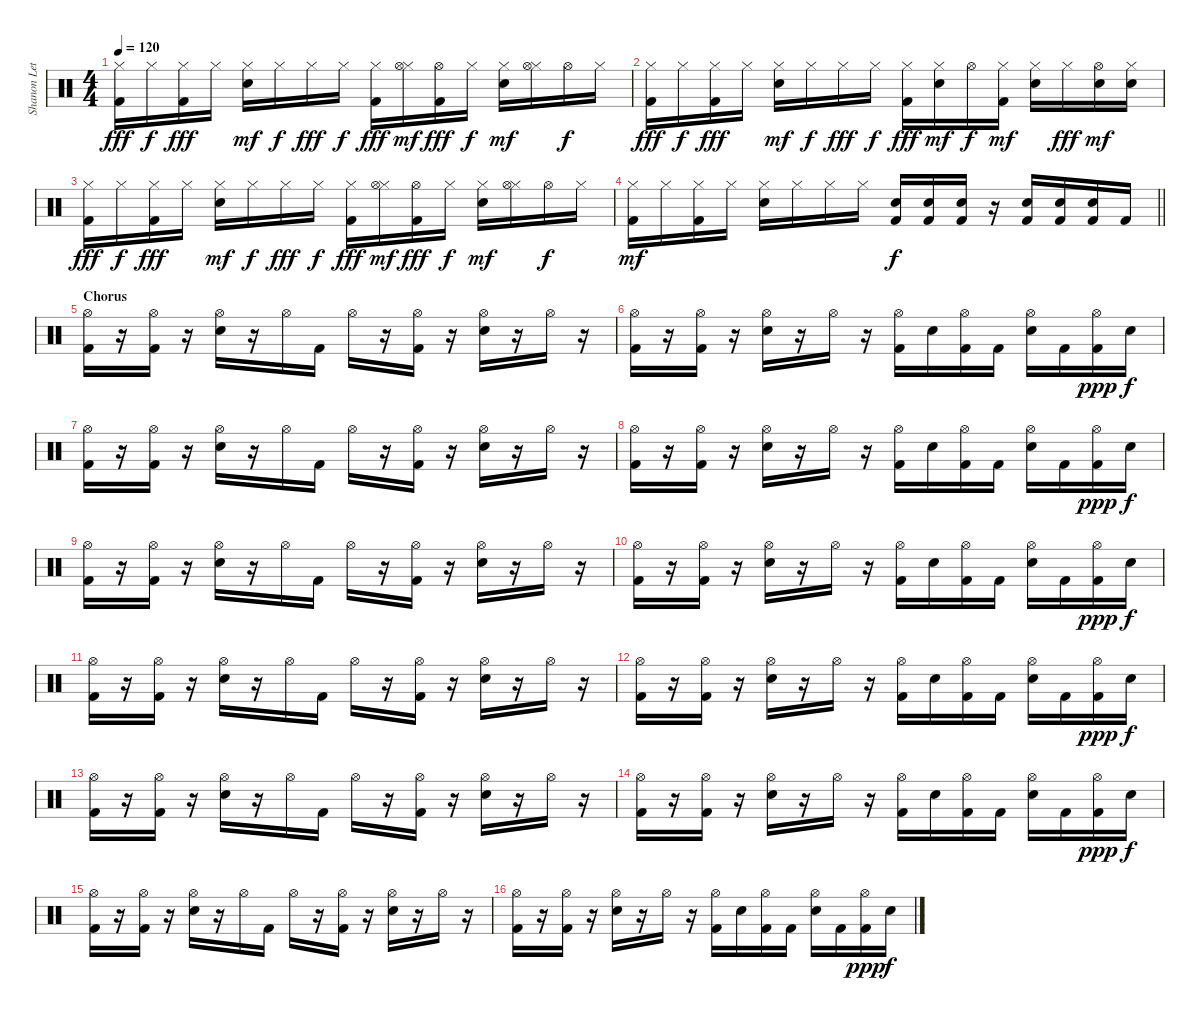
\track ("Shanon Leto(Drums)" "Shanon Let") {instrument percussion}
\staff {score}
\articulation defaults
\ts (4 4)
\tempo 120
\clef neutral
\ks c
("Hi-Hat (closed)" "Kick (hit) 2").16{dy fff} "Hi-Hat (closed)".16{dy f} ("Hi-Hat (closed)" "Kick (hit) 2").16{dy fff} "Hi-Hat (closed)".16 ("Hi-Hat (closed)" "Electric Snare (hit)").16{dy mf} "Hi-Hat (closed)".16{dy f} "Hi-Hat (closed)".16{dy fff} "Hi-Hat (closed)".16{dy f} ("Hi-Hat (closed)" "Kick (hit) 2").16{dy fff} ("Hi-Hat (closed)" "Hi-Hat (open)").16{dy mf} ("Hi-Hat (open)" "Kick (hit) 2").16{dy fff} "Hi-Hat (closed)".16{dy f} ("Hi-Hat (closed)" "Electric Snare (hit)").16{dy mf} ("Hi-Hat (closed)" "Hi-Hat (open)").16 "Hi-Hat (open)".16{dy f} "Hi-Hat (closed)".16 |
("Hi-Hat (closed)" "Kick (hit) 2").16{dy fff} "Hi-Hat (closed)".16{dy f} ("Hi-Hat (closed)" "Kick (hit) 2").16{dy fff} "Hi-Hat (closed)".16 ("Hi-Hat (closed)" "Electric Snare (hit)").16{dy mf} "Hi-Hat (closed)".16{dy f} "Hi-Hat (closed)".16{dy fff} "Hi-Hat (closed)".16{dy f} ("Hi-Hat (closed)" "Kick (hit) 2").16{dy fff} ("Hi-Hat (closed)" "Electric Snare (hit)").16{dy mf} "Hi-Hat (open)".16{dy f} ("Hi-Hat (closed)" "Kick (hit) 2").16{dy mf} ("Hi-Hat (closed)" "Electric Snare (hit)").16 "Hi-Hat (closed)".16{dy fff} ("Hi-Hat (open)" "Electric Snare (hit)").16{dy mf} ("Hi-Hat (closed)" "Electric Snare (hit)").16 |
("Hi-Hat (closed)" "Kick (hit) 2").16{dy fff} "Hi-Hat (closed)".16{dy f} ("Hi-Hat (closed)" "Kick (hit) 2").16{dy fff} "Hi-Hat (closed)".16 ("Hi-Hat (closed)" "Electric Snare (hit)").16{dy mf} "Hi-Hat (closed)".16{dy f} "Hi-Hat (closed)".16{dy fff} "Hi-Hat (closed)".16{dy f} ("Hi-Hat (closed)" "Kick (hit) 2").16{dy fff} ("Hi-Hat (closed)" "Hi-Hat (open)").16{dy mf} ("Hi-Hat (open)" "Kick (hit) 2").16{dy fff} "Hi-Hat (closed)".16{dy f} ("Hi-Hat (closed)" "Electric Snare (hit)").16{dy mf} ("Hi-Hat (closed)" "Hi-Hat (open)").16 "Hi-Hat (open)".16{dy f} "Hi-Hat (closed)".16 |
\barLineRight lightlight
("Hi-Hat (closed)" "Kick (hit) 2").16{dy mf} "Hi-Hat (closed)".16 ("Hi-Hat (closed)" "Kick (hit) 2").16 "Hi-Hat (closed)".16 ("Hi-Hat (closed)" "Electric Snare (hit)").16 "Hi-Hat (closed)".16 "Hi-Hat (closed)".16 "Hi-Hat (closed)".16 ("Electric Snare (hit)" "Kick (hit) 2").16{dy f} ("Electric Snare (hit)" "Kick (hit) 2").16 ("Electric Snare (hit)" "Kick (hit) 2").16 r.16 ("Kick (hit) 2" "Electric Snare (hit)").16 ("Electric Snare (hit)" "Kick (hit) 2").16 ("Electric Snare (hit)" "Kick (hit) 2").16 "Kick (hit) 2".16 |
\section ("" "Chorus")
("Hi-Hat (open)" "Kick (hit) 2").16 r.16 ("Hi-Hat (open)" "Kick (hit) 2").16 r.16 ("Hi-Hat (open)" "Electric Snare (hit)").16 r.16 "Hi-Hat (open)".16 "Kick (hit) 2".16 "Hi-Hat (open)".16 r.16 ("Hi-Hat (open)" "Kick (hit) 2").16 r.16 ("Hi-Hat (open)" "Electric Snare (hit)").16 r.16 "Hi-Hat (open)".16 r.16 |
("Hi-Hat (open)" "Kick (hit) 2").16 r.16 ("Hi-Hat (open)" "Kick (hit) 2").16 r.16 ("Hi-Hat (open)" "Electric Snare (hit)").16 r.16 "Hi-Hat (open)".16 r.16 ("Hi-Hat (open)" "Kick (hit) 2").16 "Electric Snare (hit)".16 ("Hi-Hat (open)" "Kick (hit) 2").16 "Kick (hit) 2".16 ("Hi-Hat (open)" "Electric Snare (hit)").16 "Kick (hit) 2".16 ("Hi-Hat (open)" "Kick (hit) 2").16{dy ppp} "Electric Snare (hit)".16{dy f} |
("Hi-Hat (open)" "Kick (hit) 2").16 r.16 ("Hi-Hat (open)" "Kick (hit) 2").16 r.16 ("Hi-Hat (open)" "Electric Snare (hit)").16 r.16 "Hi-Hat (open)".16 "Kick (hit) 2".16 "Hi-Hat (open)".16 r.16 ("Hi-Hat (open)" "Kick (hit) 2").16 r.16 ("Hi-Hat (open)" "Electric Snare (hit)").16 r.16 "Hi-Hat (open)".16 r.16 |
("Hi-Hat (open)" "Kick (hit) 2").16 r.16 ("Hi-Hat (open)" "Kick (hit) 2").16 r.16 ("Hi-Hat (open)" "Electric Snare (hit)").16 r.16 "Hi-Hat (open)".16 r.16 ("Hi-Hat (open)" "Kick (hit) 2").16 "Electric Snare (hit)".16 ("Hi-Hat (open)" "Kick (hit) 2").16 "Kick (hit) 2".16 ("Hi-Hat (open)" "Electric Snare (hit)").16 "Kick (hit) 2".16 ("Hi-Hat (open)" "Kick (hit) 2").16{dy ppp} "Electric Snare (hit)".16{dy f} |
("Hi-Hat (open)" "Kick (hit) 2").16 r.16 ("Hi-Hat (open)" "Kick (hit) 2").16 r.16 ("Hi-Hat (open)" "Electric Snare (hit)").16 r.16 "Hi-Hat (open)".16 "Kick (hit) 2".16 "Hi-Hat (open)".16 r.16 ("Hi-Hat (open)" "Kick (hit) 2").16 r.16 ("Hi-Hat (open)" "Electric Snare (hit)").16 r.16 "Hi-Hat (open)".16 r.16 |
("Hi-Hat (open)" "Kick (hit) 2").16 r.16 ("Hi-Hat (open)" "Kick (hit) 2").16 r.16 ("Hi-Hat (open)" "Electric Snare (hit)").16 r.16 "Hi-Hat (open)".16 r.16 ("Hi-Hat (open)" "Kick (hit) 2").16 "Electric Snare (hit)".16 ("Hi-Hat (open)" "Kick (hit) 2").16 "Kick (hit) 2".16 ("Hi-Hat (open)" "Electric Snare (hit)").16 "Kick (hit) 2".16 ("Hi-Hat (open)" "Kick (hit) 2").16{dy ppp} "Electric Snare (hit)".16{dy f} |
("Hi-Hat (open)" "Kick (hit) 2").16 r.16 ("Hi-Hat (open)" "Kick (hit) 2").16 r.16 ("Hi-Hat (open)" "Electric Snare (hit)").16 r.16 "Hi-Hat (open)".16 "Kick (hit) 2".16 "Hi-Hat (open)".16 r.16 ("Hi-Hat (open)" "Kick (hit) 2").16 r.16 ("Hi-Hat (open)" "Electric Snare (hit)").16 r.16 "Hi-Hat (open)".16 r.16 |
("Hi-Hat (open)" "Kick (hit) 2").16 r.16 ("Hi-Hat (open)" "Kick (hit) 2").16 r.16 ("Hi-Hat (open)" "Electric Snare (hit)").16 r.16 "Hi-Hat (open)".16 r.16 ("Hi-Hat (open)" "Kick (hit) 2").16 "Electric Snare (hit)".16 ("Hi-Hat (open)" "Kick (hit) 2").16 "Kick (hit) 2".16 ("Hi-Hat (open)" "Electric Snare (hit)").16 "Kick (hit) 2".16 ("Hi-Hat (open)" "Kick (hit) 2").16{dy ppp} "Electric Snare (hit)".16{dy f} |
("Hi-Hat (open)" "Kick (hit) 2").16 r.16 ("Hi-Hat (open)" "Kick (hit) 2").16 r.16 ("Hi-Hat (open)" "Electric Snare (hit)").16 r.16 "Hi-Hat (open)".16 "Kick (hit) 2".16 "Hi-Hat (open)".16 r.16 ("Hi-Hat (open)" "Kick (hit) 2").16 r.16 ("Hi-Hat (open)" "Electric Snare (hit)").16 r.16 "Hi-Hat (open)".16 r.16 |
("Hi-Hat (open)" "Kick (hit) 2").16 r.16 ("Hi-Hat (open)" "Kick (hit) 2").16 r.16 ("Hi-Hat (open)" "Electric Snare (hit)").16 r.16 "Hi-Hat (open)".16 r.16 ("Hi-Hat (open)" "Kick (hit) 2").16 "Electric Snare (hit)".16 ("Hi-Hat (open)" "Kick (hit) 2").16 "Kick (hit) 2".16 ("Hi-Hat (open)" "Electric Snare (hit)").16 "Kick (hit) 2".16 ("Hi-Hat (open)" "Kick (hit) 2").16{dy ppp} "Electric Snare (hit)".16{dy f} |
("Hi-Hat (open)" "Kick (hit) 2").16 r.16 ("Hi-Hat (open)" "Kick (hit) 2").16 r.16 ("Hi-Hat (open)" "Electric Snare (hit)").16 r.16 "Hi-Hat (open)".16 "Kick (hit) 2".16 "Hi-Hat (open)".16 r.16 ("Hi-Hat (open)" "Kick (hit) 2").16 r.16 ("Hi-Hat (open)" "Electric Snare (hit)").16 r.16 "Hi-Hat (open)".16 r.16 |
("Hi-Hat (open)" "Kick (hit) 2").16 r.16 ("Hi-Hat (open)" "Kick (hit) 2").16 r.16 ("Hi-Hat (open)" "Electric Snare (hit)").16 r.16 "Hi-Hat (open)".16 r.16 ("Hi-Hat (open)" "Kick (hit) 2").16 "Electric Snare (hit)".16 ("Hi-Hat (open)" "Kick (hit) 2").16 "Kick (hit) 2".16 ("Hi-Hat (open)" "Electric Snare (hit)").16 "Kick (hit) 2".16 ("Hi-Hat (open)" "Kick (hit) 2").16{dy ppp} "Electric Snare (hit)".16{dy f}
